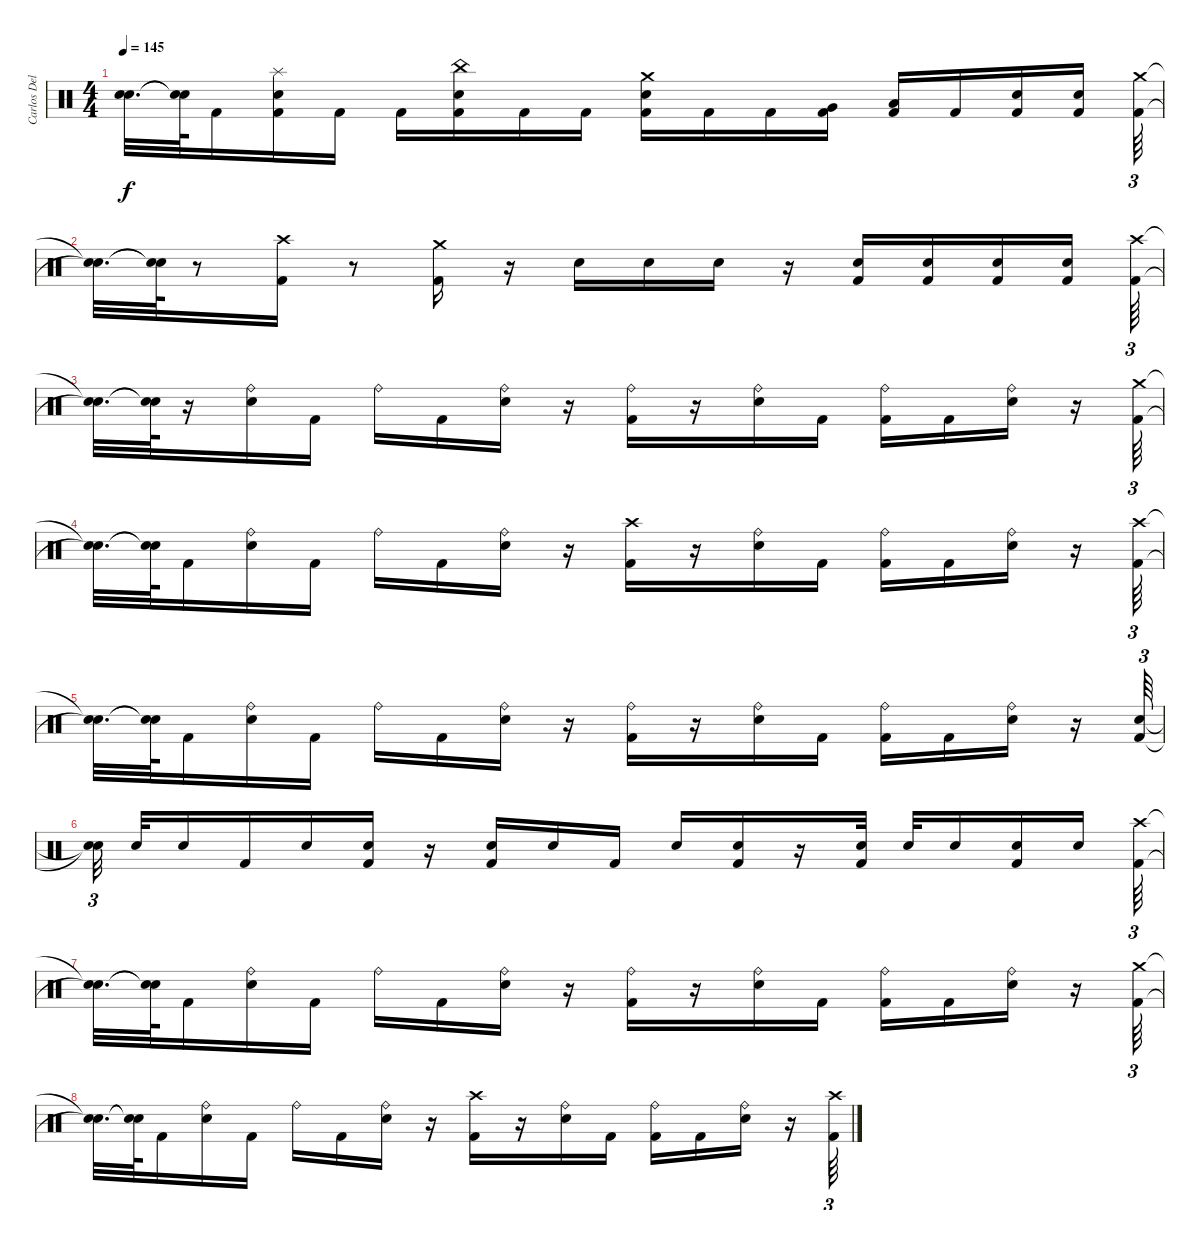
\track ("Carlos Delgado" "Carlos Del") {instrument percussion}
\staff {score}
\articulation defaults
\ts (4 4)
\tempo 145
\clef neutral
\ks c
("Snare (hit)"{t} "Snare (hit)"{t}).32{d dy f} ("Snare (hit)"{t} "Snare (hit)"{t}).64 "Kick (hit) 2".16 ("Electric Snare (hit)" "Kick (hit) 2" "Splash (hit)").16 "Kick (hit) 2".16 "Kick (hit) 2".16 ("China (hit)" "Electric Snare (hit)" "Kick (hit) 2").16 "Kick (hit) 2".16 "Kick (hit) 2".16 ("Kick (hit) 2" "Electric Snare (hit)" "Crash medium (hit)").16 "Kick (hit) 2".16 "Kick (hit) 2".16 ("Kick (hit) 2" "Very Low Tom (hit)").16 ("Kick (hit) 2" "Low Floor Tom (hit)").16 "Kick (hit) 2".16 ("Electric Snare (hit)" "Kick (hit) 2").16 ("Electric Snare (hit)" "Kick (hit) 2").16 ("Crash medium (hit)" "Kick (hit) 2").64{tu (3 2)} |
("Snare (hit)"{t} "Snare (hit)"{t}).32{d} ("Snare (hit)"{t} "Snare (hit)"{t}).64 r.8 ("Crash high (hit)" "Kick (hit) 2").16 r.8 ("Kick (hit) 2" "Crash medium (hit)").16 r.16 "Electric Snare (hit)".16 "Electric Snare (hit)".16 "Electric Snare (hit)".16 r.16 ("Kick (hit) 2" "Electric Snare (hit)").16 ("Kick (hit) 2" "Electric Snare (hit)").16 ("Kick (hit) 2" "Electric Snare (hit)").16 ("Kick (hit) 2" "Electric Snare (hit)").16 ("Crash high (hit)" "Kick (hit) 2").64{tu (3 2)} |
("Snare (hit)"{t} "Snare (hit)"{t}).32{d} ("Snare (hit)"{t} "Snare (hit)"{t}).64 r.16 ("Ride (bell)" "Electric Snare (hit)").16 "Kick (hit) 2".16 "Ride (bell)".16 "Kick (hit) 2".16 ("Ride (bell)" "Electric Snare (hit)").16 r.16 ("Kick (hit) 2" "Ride (bell)").16 r.16 ("Ride (bell)" "Electric Snare (hit)").16 "Kick (hit) 2".16 ("Kick (hit) 2" "Ride (bell)").16 "Kick (hit) 2".16 ("Ride (bell)" "Electric Snare (hit)").16 r.16 ("Crash medium (hit)" "Kick (hit) 2").64{tu (3 2)} |
("Snare (hit)"{t} "Snare (hit)"{t}).32{d} ("Snare (hit)"{t} "Snare (hit)"{t}).64 "Kick (hit) 2".16 ("Ride (bell)" "Electric Snare (hit)").16 "Kick (hit) 2".16 "Ride (bell)".16 "Kick (hit) 2".16 ("Ride (bell)" "Electric Snare (hit)").16 r.16 ("Kick (hit) 2" "Crash high (hit)").16 r.16 ("Ride (bell)" "Electric Snare (hit)").16 "Kick (hit) 2".16 ("Kick (hit) 2" "Ride (bell)").16 "Kick (hit) 2".16 ("Ride (bell)" "Electric Snare (hit)").16 r.16 ("Crash high (hit)" "Kick (hit) 2").64{tu (3 2)} |
("Snare (hit)"{t} "Snare (hit)"{t}).32{d} ("Snare (hit)"{t} "Snare (hit)"{t}).64 "Kick (hit) 2".16 ("Ride (bell)" "Electric Snare (hit)").16 "Kick (hit) 2".16 "Ride (bell)".16 "Kick (hit) 2".16 ("Ride (bell)" "Electric Snare (hit)").16 r.16 ("Kick (hit) 2" "Ride (bell)").16 r.16 ("Ride (bell)" "Electric Snare (hit)").16 "Kick (hit) 2".16 ("Kick (hit) 2" "Ride (bell)").16 "Kick (hit) 2".16 ("Ride (bell)" "Electric Snare (hit)").16 r.16 ("Electric Snare (hit)" "Kick (hit) 2").64{tu (3 2)} |
("Snare (hit)"{t} "Snare (hit)"{t}).32{tu (3 2) beam splitsecondary} "Electric Snare (hit)".32 "Electric Snare (hit)".16 "Kick (hit) 2".16 "Electric Snare (hit)".16 ("Electric Snare (hit)" "Kick (hit) 2").16 r.16 ("Kick (hit) 2" "Electric Snare (hit)").16 "Electric Snare (hit)".16 "Kick (hit) 2".16 "Electric Snare (hit)".16 ("Kick (hit) 2" "Electric Snare (hit)").16 r.16 ("Kick (hit) 2" "Electric Snare (hit)").32 "Electric Snare (hit)".32 "Electric Snare (hit)".16 ("Kick (hit) 2" "Electric Snare (hit)").16 "Electric Snare (hit)".16{beam splitsecondary} ("Crash high (hit)" "Kick (hit) 2").64{tu (3 2)} |
("Snare (hit)"{t} "Snare (hit)"{t}).32{d} ("Snare (hit)"{t} "Snare (hit)"{t}).64 "Kick (hit) 2".16 ("Ride (bell)" "Electric Snare (hit)").16 "Kick (hit) 2".16 "Ride (bell)".16 "Kick (hit) 2".16 ("Ride (bell)" "Electric Snare (hit)").16 r.16 ("Kick (hit) 2" "Ride (bell)").16 r.16 ("Ride (bell)" "Electric Snare (hit)").16 "Kick (hit) 2".16 ("Kick (hit) 2" "Ride (bell)").16 "Kick (hit) 2".16 ("Ride (bell)" "Electric Snare (hit)").16 r.16 ("Crash medium (hit)" "Kick (hit) 2").64{tu (3 2)} |
("Snare (hit)"{t} "Snare (hit)"{t}).32{d} ("Snare (hit)"{t} "Snare (hit)"{t}).64 "Kick (hit) 2".16 ("Ride (bell)" "Electric Snare (hit)").16 "Kick (hit) 2".16 "Ride (bell)".16 "Kick (hit) 2".16 ("Ride (bell)" "Electric Snare (hit)").16 r.16 ("Kick (hit) 2" "Crash high (hit)").16 r.16 ("Ride (bell)" "Electric Snare (hit)").16 "Kick (hit) 2".16 ("Kick (hit) 2" "Ride (bell)").16 "Kick (hit) 2".16 ("Ride (bell)" "Electric Snare (hit)").16 r.16 ("Crash high (hit)" "Kick (hit) 2").64{tu (3 2)}
